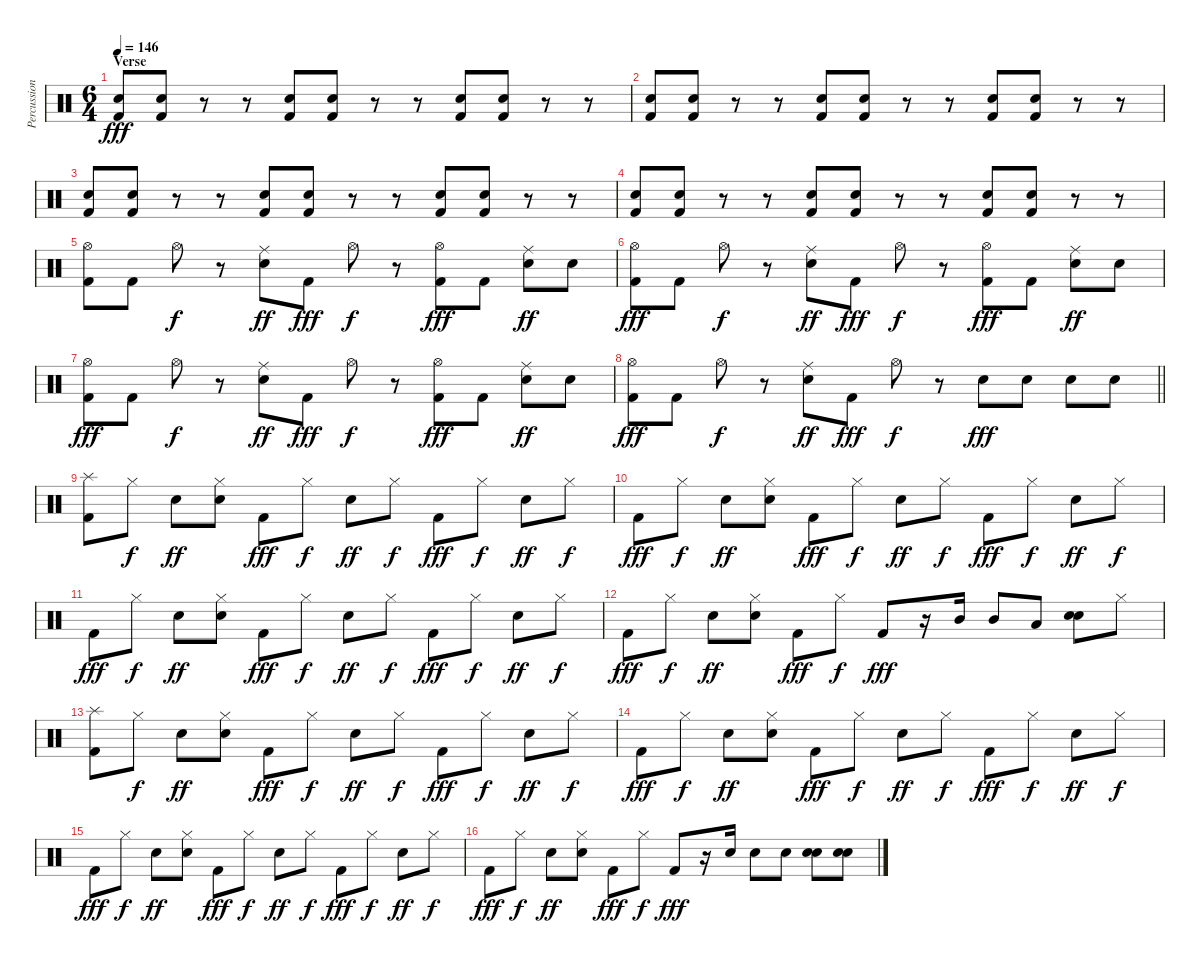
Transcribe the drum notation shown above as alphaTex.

\track ("Percussions" "Percussion") {instrument percussion}
\staff {score}
\articulation defaults
\ts (6 4)
\section ("" "Verse")
\tempo 146
\clef neutral
\ks c
("Snare (hit) 2" "Kick (hit) 2").8{dy fff} ("Snare (hit) 2" "Kick (hit) 2").8 r.8 r.8 ("Snare (hit) 2" "Kick (hit) 2").8 ("Snare (hit) 2" "Kick (hit) 2").8 r.8 r.8 ("Snare (hit) 2" "Kick (hit) 2").8 ("Snare (hit) 2" "Kick (hit) 2").8 r.8 r.8 |
("Snare (hit) 2" "Kick (hit) 2").8 ("Snare (hit) 2" "Kick (hit) 2").8 r.8 r.8 ("Snare (hit) 2" "Kick (hit) 2").8 ("Snare (hit) 2" "Kick (hit) 2").8 r.8 r.8 ("Snare (hit) 2" "Kick (hit) 2").8 ("Snare (hit) 2" "Kick (hit) 2").8 r.8 r.8 |
("Snare (hit) 2" "Kick (hit) 2").8 ("Snare (hit) 2" "Kick (hit) 2").8 r.8 r.8 ("Snare (hit) 2" "Kick (hit) 2").8 ("Snare (hit) 2" "Kick (hit) 2").8 r.8 r.8 ("Snare (hit) 2" "Kick (hit) 2").8 ("Snare (hit) 2" "Kick (hit) 2").8 r.8 r.8 |
("Snare (hit) 2" "Kick (hit) 2").8 ("Snare (hit) 2" "Kick (hit) 2").8 r.8 r.8 ("Snare (hit) 2" "Kick (hit) 2").8 ("Snare (hit) 2" "Kick (hit) 2").8 r.8 r.8 ("Snare (hit) 2" "Kick (hit) 2").8 ("Snare (hit) 2" "Kick (hit) 2").8 r.8 r.8 |
("Hi-Hat (open)" "Kick (hit) 2").8 "Kick (hit) 2".8 "Hi-Hat (open)".8{dy f} r.8 ("Ride (middle)" "Snare (hit) 2").8{dy ff} "Kick (hit) 2".8{dy fff} "Hi-Hat (open)".8{dy f} r.8 ("Hi-Hat (open)" "Kick (hit) 2").8{dy fff} "Kick (hit) 2".8 ("Ride (middle)" "Snare (hit) 2").8{dy ff} "Snare (hit) 2".8 |
("Hi-Hat (open)" "Kick (hit) 2").8{dy fff} "Kick (hit) 2".8 "Hi-Hat (open)".8{dy f} r.8 ("Ride (middle)" "Snare (hit) 2").8{dy ff} "Kick (hit) 2".8{dy fff} "Hi-Hat (open)".8{dy f} r.8 ("Hi-Hat (open)" "Kick (hit) 2").8{dy fff} "Kick (hit) 2".8 ("Ride (middle)" "Snare (hit) 2").8{dy ff} "Snare (hit) 2".8 |
("Hi-Hat (open)" "Kick (hit) 2").8{dy fff} "Kick (hit) 2".8 "Hi-Hat (open)".8{dy f} r.8 ("Ride (middle)" "Snare (hit) 2").8{dy ff} "Kick (hit) 2".8{dy fff} "Hi-Hat (open)".8{dy f} r.8 ("Hi-Hat (open)" "Kick (hit) 2").8{dy fff} "Kick (hit) 2".8 ("Ride (middle)" "Snare (hit) 2").8{dy ff} "Snare (hit) 2".8 |
\barLineRight lightlight
("Hi-Hat (open)" "Kick (hit) 2").8{dy fff} "Kick (hit) 2".8 "Hi-Hat (open)".8{dy f} r.8 ("Ride (middle)" "Snare (hit) 2").8{dy ff} "Kick (hit) 2".8{dy fff} "Hi-Hat (open)".8{dy f} r.8 "Snare (hit) 2".8{dy fff} "Snare (hit) 2".8 "Snare (hit) 2".8 "Snare (hit) 2".8 |
\section ("" "")
("Splash (hit)" "Kick (hit) 2").8 "Hi-Hat (closed)".8{dy f} "Snare (hit) 2".8{dy ff} ("Hi-Hat (closed)" "Snare (hit) 2").8 "Kick (hit) 2".8{dy fff} "Hi-Hat (closed)".8{dy f} "Snare (hit) 2".8{dy ff} "Hi-Hat (closed)".8{dy f} "Kick (hit) 2".8{dy fff} "Hi-Hat (closed)".8{dy f} "Snare (hit) 2".8{dy ff} "Hi-Hat (closed)".8{dy f} |
"Kick (hit) 2".8{dy fff} "Hi-Hat (closed)".8{dy f} "Snare (hit) 2".8{dy ff} ("Hi-Hat (closed)" "Snare (hit) 2").8 "Kick (hit) 2".8{dy fff} "Hi-Hat (closed)".8{dy f} "Snare (hit) 2".8{dy ff} "Hi-Hat (closed)".8{dy f} "Kick (hit) 2".8{dy fff} "Hi-Hat (closed)".8{dy f} "Snare (hit) 2".8{dy ff} "Hi-Hat (closed)".8{dy f} |
"Kick (hit) 2".8{dy fff} "Hi-Hat (closed)".8{dy f} "Snare (hit) 2".8{dy ff} ("Hi-Hat (closed)" "Snare (hit) 2").8 "Kick (hit) 2".8{dy fff} "Hi-Hat (closed)".8{dy f} "Snare (hit) 2".8{dy ff} "Hi-Hat (closed)".8{dy f} "Kick (hit) 2".8{dy fff} "Hi-Hat (closed)".8{dy f} "Snare (hit) 2".8{dy ff} "Hi-Hat (closed)".8{dy f} |
"Kick (hit) 2".8{dy fff} "Hi-Hat (closed)".8{dy f} "Snare (hit) 2".8{dy ff} ("Hi-Hat (closed)" "Snare (hit) 2").8 "Kick (hit) 2".8{dy fff} "Hi-Hat (closed)".8{dy f} "Kick (hit) 2".8{dy fff} r.16 "Mid Tom (hit)".16 "Mid Tom (hit)".8 "Low Tom (hit)".8 ("Snare (hit) 2" "Snare (hit) 2").8{bd 480} "Hi-Hat (closed)".8 |
("Splash (hit)" "Kick (hit) 2").8 "Hi-Hat (closed)".8{dy f} "Snare (hit) 2".8{dy ff} ("Hi-Hat (closed)" "Snare (hit) 2").8 "Kick (hit) 2".8{dy fff} "Hi-Hat (closed)".8{dy f} "Snare (hit) 2".8{dy ff} "Hi-Hat (closed)".8{dy f} "Kick (hit) 2".8{dy fff} "Hi-Hat (closed)".8{dy f} "Snare (hit) 2".8{dy ff} "Hi-Hat (closed)".8{dy f} |
"Kick (hit) 2".8{dy fff} "Hi-Hat (closed)".8{dy f} "Snare (hit) 2".8{dy ff} ("Hi-Hat (closed)" "Snare (hit) 2").8 "Kick (hit) 2".8{dy fff} "Hi-Hat (closed)".8{dy f} "Snare (hit) 2".8{dy ff} "Hi-Hat (closed)".8{dy f} "Kick (hit) 2".8{dy fff} "Hi-Hat (closed)".8{dy f} "Snare (hit) 2".8{dy ff} "Hi-Hat (closed)".8{dy f} |
"Kick (hit) 2".8{dy fff} "Hi-Hat (closed)".8{dy f} "Snare (hit) 2".8{dy ff} ("Hi-Hat (closed)" "Snare (hit) 2").8 "Kick (hit) 2".8{dy fff} "Hi-Hat (closed)".8{dy f} "Snare (hit) 2".8{dy ff} "Hi-Hat (closed)".8{dy f} "Kick (hit) 2".8{dy fff} "Hi-Hat (closed)".8{dy f} "Snare (hit) 2".8{dy ff} "Hi-Hat (closed)".8{dy f} |
"Kick (hit) 2".8{dy fff} "Hi-Hat (closed)".8{dy f} "Snare (hit) 2".8{dy ff} ("Hi-Hat (closed)" "Snare (hit) 2").8 "Kick (hit) 2".8{dy fff} "Hi-Hat (closed)".8{dy f} "Kick (hit) 2".8{dy fff} r.16 "Snare (hit) 2".16 "Snare (hit) 2".8 "Snare (hit) 2".8 ("Snare (hit) 2" "Snare (hit) 2").8{bd 480} ("Snare (hit) 2" "Snare (hit) 2").8{bd 480}
